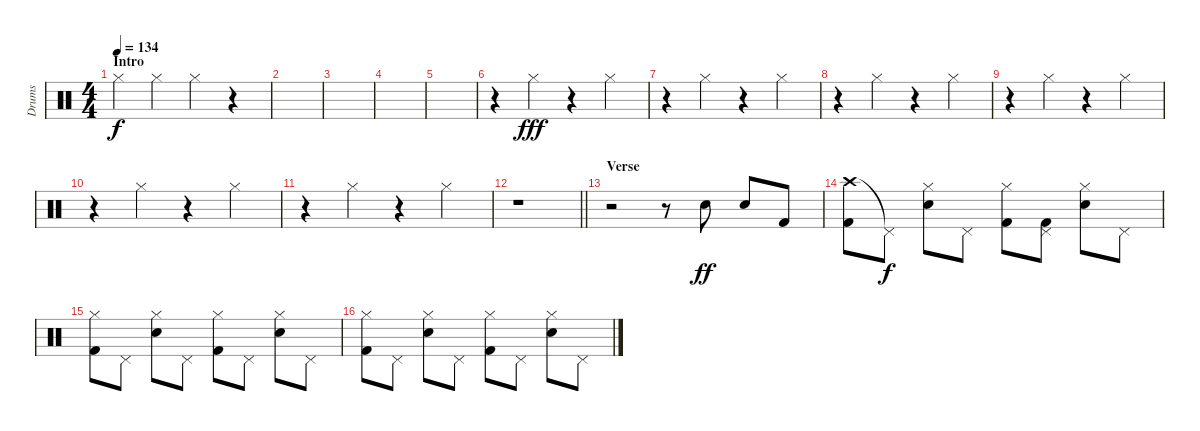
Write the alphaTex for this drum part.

\track ("Drums" "Drums") {instrument percussion}
\staff {score}
\articulation defaults
\ts (4 4)
\section ("" "Intro")
\tempo 134
\clef neutral
\ks c "Hi-Hat (closed)".4{dy f} "Hi-Hat (closed)".4 "Hi-Hat (closed)".4
r.4 |
|
|
|
|
r.4 "Hi-Hat (closed)".4{dy fff} r.4 "Hi-Hat (closed)".4 |
r.4 "Hi-Hat (closed)".4 r.4 "Hi-Hat (closed)".4 |
r.4 "Hi-Hat (closed)".4 r.4 "Hi-Hat (closed)".4 |
r.4 "Hi-Hat (closed)".4 r.4 "Hi-Hat (closed)".4 |
r.4 "Hi-Hat (closed)".4 r.4 "Hi-Hat (closed)".4 |
r.4 "Hi-Hat (closed)".4 r.4 "Hi-Hat (closed)".4 |
\barLineRight lightlight
r.1 |
\section ("" "Verse")
r.2 r.8 "Snare (hit) 2".8{dy ff} "Snare (hit) 2".8 "Kick (hit) 2".8 |
("Crash high (hit)" "Kick (hit) 2").8 "Pedal Hi-Hat (hit)"{t}.8{dy f} ("Hi-Hat (closed)" "Snare (hit) 2").8 "Pedal Hi-Hat (hit)".8 ("Hi-Hat (closed)" "Kick (hit) 2").8 ("Pedal Hi-Hat (hit)" "Kick (hit) 2").8 ("Hi-Hat (closed)" "Snare (hit) 2").8 "Pedal Hi-Hat (hit)".8 |
("Hi-Hat (closed)" "Kick (hit) 2").8 "Pedal Hi-Hat (hit)".8 ("Hi-Hat (closed)" "Snare (hit) 2").8 "Pedal Hi-Hat (hit)".8 ("Hi-Hat (closed)" "Kick (hit) 2").8 "Pedal Hi-Hat (hit)".8 ("Hi-Hat (closed)" "Snare (hit) 2").8 "Pedal Hi-Hat (hit)".8 |
("Hi-Hat (closed)" "Kick (hit) 2").8 "Pedal Hi-Hat (hit)".8 ("Hi-Hat (closed)" "Snare (hit) 2").8 "Pedal Hi-Hat (hit)".8 ("Hi-Hat (closed)" "Kick (hit) 2").8 "Pedal Hi-Hat (hit)".8 ("Hi-Hat (closed)" "Snare (hit) 2").8 "Pedal Hi-Hat (hit)".8
